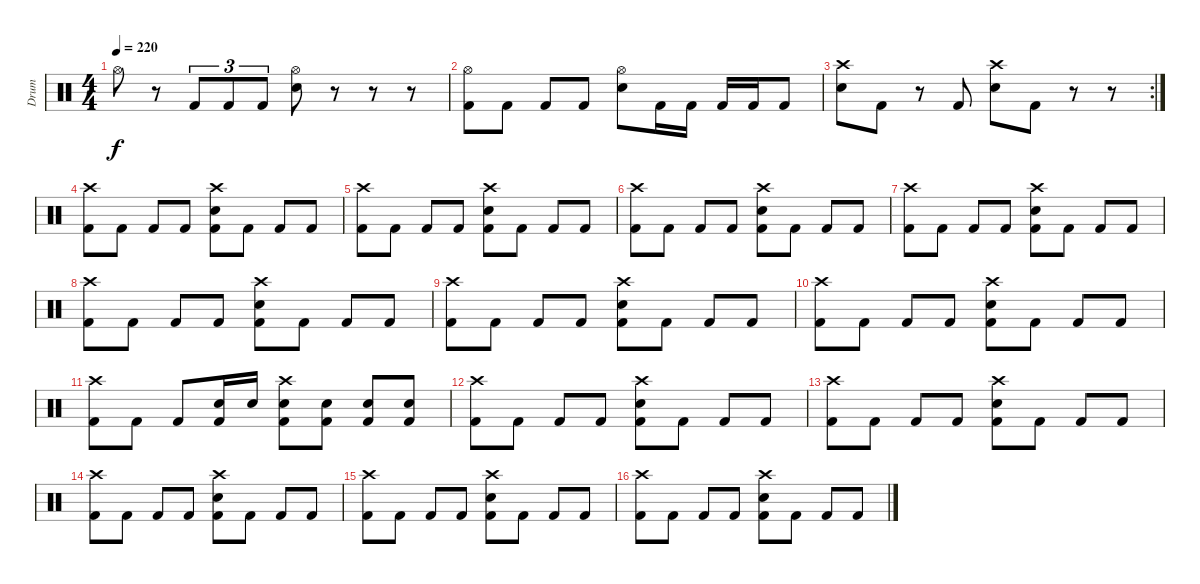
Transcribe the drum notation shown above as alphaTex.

\track ("Drum" "Drum") {instrument percussion}
\staff {score}
\articulation defaults
\ts (4 4)
\tempo 220
\clef neutral
\ks c "Hi-Hat (open)".8{dy f}
r.8 "Kick (hit) 2".8{tu (3 2)} "Kick (hit) 2".8{tu (3 2)} "Kick (hit) 2".8{tu (3 2)} ("Hi-Hat (open)" "Snare (hit) 2").8 r.8 r.8 r.8 |
("Hi-Hat (open)" "Kick (hit) 2").8 "Kick (hit) 2".8 "Kick (hit) 2".8 "Kick (hit) 2".8 ("Hi-Hat (open)" "Snare (hit) 2").8 "Kick (hit) 2".16 "Kick (hit) 2".16 "Kick (hit) 2".16 "Kick (hit) 2".16 "Kick (hit) 2".8 |
\rc 2
("Crash high (hit)" "Snare (hit) 2").8 "Kick (hit) 2".8 r.8 "Kick (hit) 2".8 ("Crash high (hit)" "Snare (hit) 2").8 "Kick (hit) 2".8 r.8 r.8 |
("Crash high (hit)" "Kick (hit) 2").8 "Kick (hit) 2".8 "Kick (hit) 2".8 "Kick (hit) 2".8 ("Crash high (hit)" "Snare (hit) 2" "Kick (hit) 2").8 "Kick (hit) 2".8 "Kick (hit) 2".8 "Kick (hit) 2".8 |
("Crash high (hit)" "Kick (hit) 2").8 "Kick (hit) 2".8 "Kick (hit) 2".8 "Kick (hit) 2".8 ("Crash high (hit)" "Snare (hit) 2" "Kick (hit) 2").8 "Kick (hit) 2".8 "Kick (hit) 2".8 "Kick (hit) 2".8 |
("Crash high (hit)" "Kick (hit) 2").8 "Kick (hit) 2".8 "Kick (hit) 2".8 "Kick (hit) 2".8 ("Crash high (hit)" "Snare (hit) 2" "Kick (hit) 2").8 "Kick (hit) 2".8 "Kick (hit) 2".8 "Kick (hit) 2".8 |
("Crash high (hit)" "Kick (hit) 2").8 "Kick (hit) 2".8 "Kick (hit) 2".8 "Kick (hit) 2".8 ("Crash high (hit)" "Snare (hit) 2" "Kick (hit) 2").8 "Kick (hit) 2".8 "Kick (hit) 2".8 "Kick (hit) 2".8 |
("Crash high (hit)" "Kick (hit) 2").8 "Kick (hit) 2".8 "Kick (hit) 2".8 "Kick (hit) 2".8 ("Crash high (hit)" "Snare (hit) 2" "Kick (hit) 2").8 "Kick (hit) 2".8 "Kick (hit) 2".8 "Kick (hit) 2".8 |
("Crash high (hit)" "Kick (hit) 2").8 "Kick (hit) 2".8 "Kick (hit) 2".8 "Kick (hit) 2".8 ("Crash high (hit)" "Snare (hit) 2" "Kick (hit) 2").8 "Kick (hit) 2".8 "Kick (hit) 2".8 "Kick (hit) 2".8 |
("Crash high (hit)" "Kick (hit) 2").8 "Kick (hit) 2".8 "Kick (hit) 2".8 "Kick (hit) 2".8 ("Crash high (hit)" "Snare (hit) 2" "Kick (hit) 2").8 "Kick (hit) 2".8 "Kick (hit) 2".8 "Kick (hit) 2".8 |
("Crash high (hit)" "Kick (hit) 2").8 "Kick (hit) 2".8 "Kick (hit) 2".8 ("Snare (hit) 2" "Kick (hit) 2").16 "Snare (hit) 2".16 ("Crash high (hit)" "Snare (hit) 2" "Kick (hit) 2").8 ("Snare (hit) 2" "Kick (hit) 2").8 ("Snare (hit) 2" "Kick (hit) 2").8 ("Snare (hit) 2" "Kick (hit) 2").8 |
("Crash high (hit)" "Kick (hit) 2").8 "Kick (hit) 2".8 "Kick (hit) 2".8 "Kick (hit) 2".8 ("Crash high (hit)" "Snare (hit) 2" "Kick (hit) 2").8 "Kick (hit) 2".8 "Kick (hit) 2".8 "Kick (hit) 2".8 |
("Crash high (hit)" "Kick (hit) 2").8 "Kick (hit) 2".8 "Kick (hit) 2".8 "Kick (hit) 2".8 ("Crash high (hit)" "Snare (hit) 2" "Kick (hit) 2").8 "Kick (hit) 2".8 "Kick (hit) 2".8 "Kick (hit) 2".8 |
("Crash high (hit)" "Kick (hit) 2").8 "Kick (hit) 2".8 "Kick (hit) 2".8 "Kick (hit) 2".8 ("Crash high (hit)" "Snare (hit) 2" "Kick (hit) 2").8 "Kick (hit) 2".8 "Kick (hit) 2".8 "Kick (hit) 2".8 |
("Crash high (hit)" "Kick (hit) 2").8 "Kick (hit) 2".8 "Kick (hit) 2".8 "Kick (hit) 2".8 ("Crash high (hit)" "Snare (hit) 2" "Kick (hit) 2").8 "Kick (hit) 2".8 "Kick (hit) 2".8 "Kick (hit) 2".8 |
("Crash high (hit)" "Kick (hit) 2").8 "Kick (hit) 2".8 "Kick (hit) 2".8 "Kick (hit) 2".8 ("Crash high (hit)" "Snare (hit) 2" "Kick (hit) 2").8 "Kick (hit) 2".8 "Kick (hit) 2".8 "Kick (hit) 2".8
